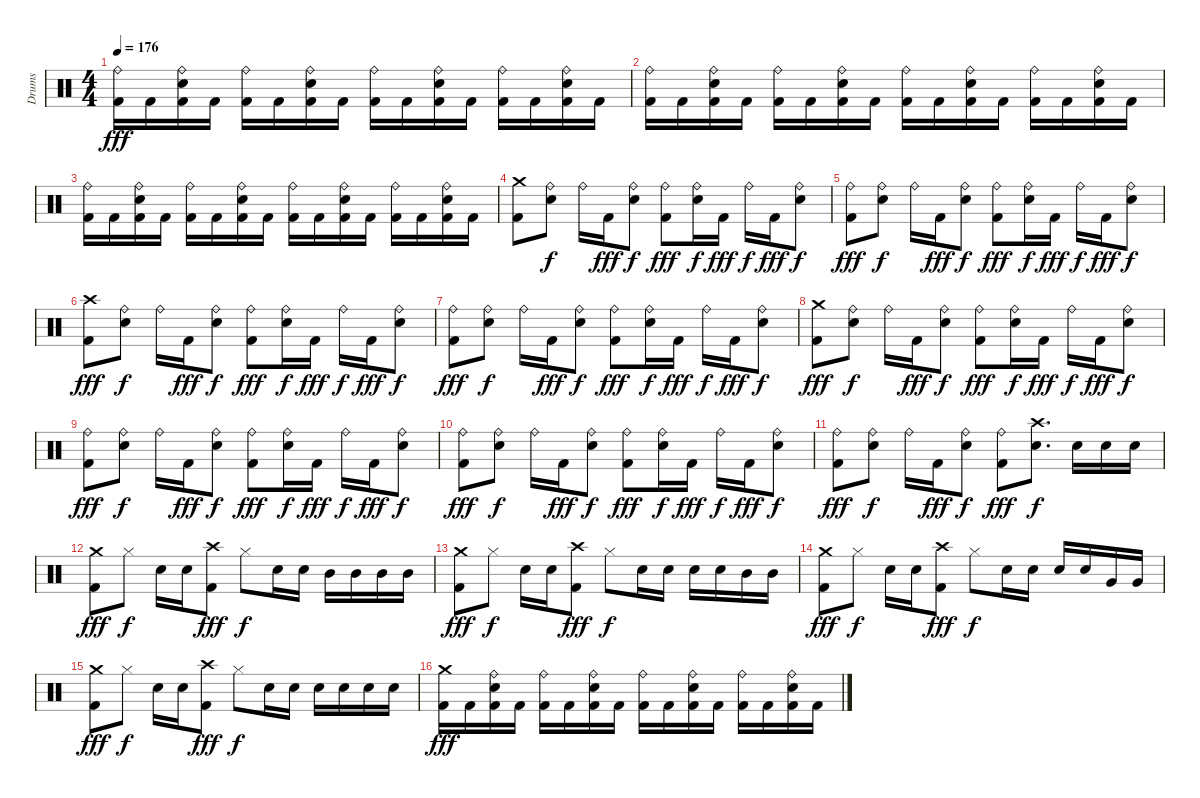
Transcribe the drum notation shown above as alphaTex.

\track ("Drums" "Drums") {instrument percussion}
\staff {score}
\articulation defaults
\ts (4 4)
\tempo 176
\clef neutral
\ks c
("Ride (bell)" "Kick (hit) 2").16{dy fff} "Kick (hit) 2".16 ("Ride (bell)" "Snare (hit) 2" "Kick (hit) 2").16 "Kick (hit) 2".16 ("Ride (bell)" "Kick (hit) 2").16 "Kick (hit) 2".16 ("Ride (bell)" "Snare (hit) 2" "Kick (hit) 2").16 "Kick (hit) 2".16 ("Ride (bell)" "Kick (hit) 2").16 "Kick (hit) 2".16 ("Ride (bell)" "Snare (hit) 2" "Kick (hit) 2").16 "Kick (hit) 2".16 ("Ride (bell)" "Kick (hit) 2").16 "Kick (hit) 2".16 ("Ride (bell)" "Snare (hit) 2" "Kick (hit) 2").16 "Kick (hit) 2".16 |
("Ride (bell)" "Kick (hit) 2").16 "Kick (hit) 2".16 ("Ride (bell)" "Snare (hit) 2" "Kick (hit) 2").16 "Kick (hit) 2".16 ("Ride (bell)" "Kick (hit) 2").16 "Kick (hit) 2".16 ("Ride (bell)" "Snare (hit) 2" "Kick (hit) 2").16 "Kick (hit) 2".16 ("Ride (bell)" "Kick (hit) 2").16 "Kick (hit) 2".16 ("Ride (bell)" "Snare (hit) 2" "Kick (hit) 2").16 "Kick (hit) 2".16 ("Ride (bell)" "Kick (hit) 2").16 "Kick (hit) 2".16 ("Ride (bell)" "Snare (hit) 2" "Kick (hit) 2").16 "Kick (hit) 2".16 |
("Ride (bell)" "Kick (hit) 2").16 "Kick (hit) 2".16 ("Ride (bell)" "Snare (hit) 2" "Kick (hit) 2").16 "Kick (hit) 2".16 ("Ride (bell)" "Kick (hit) 2").16 "Kick (hit) 2".16 ("Ride (bell)" "Snare (hit) 2" "Kick (hit) 2").16 "Kick (hit) 2".16 ("Ride (bell)" "Kick (hit) 2").16 "Kick (hit) 2".16 ("Ride (bell)" "Snare (hit) 2" "Kick (hit) 2").16 "Kick (hit) 2".16 ("Ride (bell)" "Kick (hit) 2").16 "Kick (hit) 2".16 ("Ride (bell)" "Snare (hit) 2" "Kick (hit) 2").16 "Kick (hit) 2".16 |
("Crash medium (hit)" "Kick (hit) 2").8 ("Ride (bell)" "Snare (hit) 2").8{dy f} "Ride (bell)".16 "Kick (hit) 2".16{dy fff} ("Ride (bell)" "Snare (hit) 2").8{dy f} ("Ride (bell)" "Kick (hit) 2").8{dy fff} ("Ride (bell)" "Snare (hit) 2").16{dy f} "Kick (hit) 2".16{dy fff} "Ride (bell)".16{dy f} "Kick (hit) 2".16{dy fff} ("Ride (bell)" "Snare (hit) 2").8{dy f} |
("Ride (bell)" "Kick (hit) 2").8{dy fff} ("Ride (bell)" "Snare (hit) 2").8{dy f} "Ride (bell)".16 "Kick (hit) 2".16{dy fff} ("Ride (bell)" "Snare (hit) 2").8{dy f} ("Ride (bell)" "Kick (hit) 2").8{dy fff} ("Ride (bell)" "Snare (hit) 2").16{dy f} "Kick (hit) 2".16{dy fff} "Ride (bell)".16{dy f} "Kick (hit) 2".16{dy fff} ("Ride (bell)" "Snare (hit) 2").8{dy f} |
("Crash high (hit)" "Kick (hit) 2").8{dy fff} ("Ride (bell)" "Snare (hit) 2").8{dy f} "Ride (bell)".16 "Kick (hit) 2".16{dy fff} ("Ride (bell)" "Snare (hit) 2").8{dy f} ("Ride (bell)" "Kick (hit) 2").8{dy fff} ("Ride (bell)" "Snare (hit) 2").16{dy f} "Kick (hit) 2".16{dy fff} "Ride (bell)".16{dy f} "Kick (hit) 2".16{dy fff} ("Ride (bell)" "Snare (hit) 2").8{dy f} |
("Ride (bell)" "Kick (hit) 2").8{dy fff} ("Ride (bell)" "Snare (hit) 2").8{dy f} "Ride (bell)".16 "Kick (hit) 2".16{dy fff} ("Ride (bell)" "Snare (hit) 2").8{dy f} ("Ride (bell)" "Kick (hit) 2").8{dy fff} ("Ride (bell)" "Snare (hit) 2").16{dy f} "Kick (hit) 2".16{dy fff} "Ride (bell)".16{dy f} "Kick (hit) 2".16{dy fff} ("Ride (bell)" "Snare (hit) 2").8{dy f} |
("Crash medium (hit)" "Kick (hit) 2").8{dy fff} ("Ride (bell)" "Snare (hit) 2").8{dy f} "Ride (bell)".16 "Kick (hit) 2".16{dy fff} ("Ride (bell)" "Snare (hit) 2").8{dy f} ("Ride (bell)" "Kick (hit) 2").8{dy fff} ("Ride (bell)" "Snare (hit) 2").16{dy f} "Kick (hit) 2".16{dy fff} "Ride (bell)".16{dy f} "Kick (hit) 2".16{dy fff} ("Ride (bell)" "Snare (hit) 2").8{dy f} |
("Ride (bell)" "Kick (hit) 2").8{dy fff} ("Ride (bell)" "Snare (hit) 2").8{dy f} "Ride (bell)".16 "Kick (hit) 2".16{dy fff} ("Ride (bell)" "Snare (hit) 2").8{dy f} ("Ride (bell)" "Kick (hit) 2").8{dy fff} ("Ride (bell)" "Snare (hit) 2").16{dy f} "Kick (hit) 2".16{dy fff} "Ride (bell)".16{dy f} "Kick (hit) 2".16{dy fff} ("Ride (bell)" "Snare (hit) 2").8{dy f} |
("Ride (bell)" "Kick (hit) 2").8{dy fff} ("Ride (bell)" "Snare (hit) 2").8{dy f} "Ride (bell)".16 "Kick (hit) 2".16{dy fff} ("Ride (bell)" "Snare (hit) 2").8{dy f} ("Ride (bell)" "Kick (hit) 2").8{dy fff} ("Ride (bell)" "Snare (hit) 2").16{dy f} "Kick (hit) 2".16{dy fff} "Ride (bell)".16{dy f} "Kick (hit) 2".16{dy fff} ("Ride (bell)" "Snare (hit) 2").8{dy f} |
("Ride (bell)" "Kick (hit) 2").8{dy fff} ("Ride (bell)" "Snare (hit) 2").8{dy f} "Ride (bell)".16 "Kick (hit) 2".16{dy fff} ("Ride (bell)" "Snare (hit) 2").8{dy f} ("Ride (bell)" "Kick (hit) 2").8{dy fff} ("Crash high (hit)" "Snare (hit) 2").8{d dy f} "Snare (hit) 2".16 "Snare (hit) 2".16 "Snare (hit) 2".16 |
("Crash medium (hit)" "Kick (hit) 2").8{dy fff} "Hi-Hat (closed)".8{dy f} "Snare (hit) 2".16 "Snare (hit) 2".16 ("Crash high (hit)" "Kick (hit) 2").8{dy fff} "Hi-Hat (closed)".8{dy f} "Snare (hit) 2".16 "Snare (hit) 2".16 "Mid Tom (hit)".16 "Mid Tom (hit)".16 "Mid Tom (hit)".16 "Mid Tom (hit)".16 |
("Crash medium (hit)" "Kick (hit) 2").8{dy fff} "Hi-Hat (closed)".8{dy f} "Snare (hit) 2".16 "Snare (hit) 2".16 ("Crash high (hit)" "Kick (hit) 2").8{dy fff} "Hi-Hat (closed)".8{dy f} "Snare (hit) 2".16 "Snare (hit) 2".16 "Snare (hit) 2".16 "Snare (hit) 2".16 "Mid Tom (hit)".16 "Mid Tom (hit)".16 |
("Crash medium (hit)" "Kick (hit) 2").8{dy fff} "Hi-Hat (closed)".8{dy f} "Snare (hit) 2".16 "Snare (hit) 2".16 ("Crash high (hit)" "Kick (hit) 2").8{dy fff} "Hi-Hat (closed)".8{dy f} "Snare (hit) 2".16 "Snare (hit) 2".16 "Snare (hit) 2".16 "Snare (hit) 2".16 "Very Low Tom (hit)".16 "Very Low Tom (hit)".16 |
("Crash medium (hit)" "Kick (hit) 2").8{dy fff} "Hi-Hat (closed)".8{dy f} "Snare (hit) 2".16 "Snare (hit) 2".16 ("Crash high (hit)" "Kick (hit) 2").8{dy fff} "Hi-Hat (closed)".8{dy f} "Snare (hit) 2".16 "Snare (hit) 2".16 "Snare (hit) 2".16 "Snare (hit) 2".16 "Snare (hit) 2".16 "Snare (hit) 2".16 |
("Crash medium (hit)" "Kick (hit) 2").16{dy fff} "Kick (hit) 2".16 ("Ride (bell)" "Snare (hit) 2" "Kick (hit) 2").16 "Kick (hit) 2".16 ("Ride (bell)" "Kick (hit) 2").16 "Kick (hit) 2".16 ("Ride (bell)" "Snare (hit) 2" "Kick (hit) 2").16 "Kick (hit) 2".16 ("Ride (bell)" "Kick (hit) 2").16 "Kick (hit) 2".16 ("Ride (bell)" "Snare (hit) 2" "Kick (hit) 2").16 "Kick (hit) 2".16 ("Ride (bell)" "Kick (hit) 2").16 "Kick (hit) 2".16 ("Ride (bell)" "Snare (hit) 2" "Kick (hit) 2").16 "Kick (hit) 2".16
